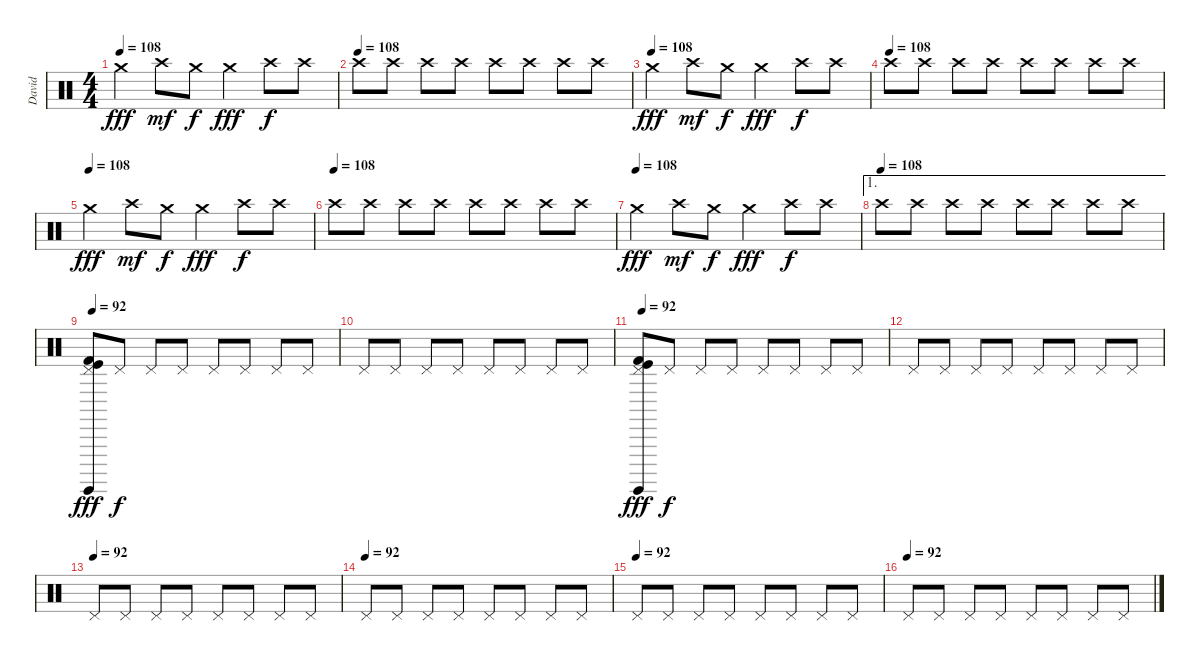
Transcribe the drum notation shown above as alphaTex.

\track ("David" "David") {instrument percussion}
\staff {score}
\articulation defaults
\ts (4 4)
\tempo 108
\clef neutral
\ks c "Crash medium (hit)".4{dy fff} "Crash high (hit)".8{dy mf} "Crash medium (hit)".8{dy f} "Crash medium (hit)".4{dy fff} "Crash high (hit)".8{dy f} "Crash high (hit)".8
|
\tempo (108)
"Crash high (hit)".8 "Crash high (hit)".8 "Crash high (hit)".8 "Crash high (hit)".8 "Crash high (hit)".8 "Crash high (hit)".8 "Crash high (hit)".8 "Crash high (hit)".8 |
\tempo (108)
"Crash medium (hit)".4{dy fff} "Crash high (hit)".8{dy mf} "Crash medium (hit)".8{dy f} "Crash medium (hit)".4{dy fff} "Crash high (hit)".8{dy f} "Crash high (hit)".8 |
\tempo (108)
"Crash high (hit)".8 "Crash high (hit)".8 "Crash high (hit)".8 "Crash high (hit)".8 "Crash high (hit)".8 "Crash high (hit)".8 "Crash high (hit)".8 "Crash high (hit)".8 |
\tempo (108)
"Crash medium (hit)".4{dy fff} "Crash high (hit)".8{dy mf} "Crash medium (hit)".8{dy f} "Crash medium (hit)".4{dy fff} "Crash high (hit)".8{dy f} "Crash high (hit)".8 |
\tempo (108)
"Crash high (hit)".8 "Crash high (hit)".8 "Crash high (hit)".8 "Crash high (hit)".8 "Crash high (hit)".8 "Crash high (hit)".8 "Crash high (hit)".8 "Crash high (hit)".8 |
\tempo (108)
"Crash medium (hit)".4{dy fff} "Crash high (hit)".8{dy mf} "Crash medium (hit)".8{dy f} "Crash medium (hit)".4{dy fff} "Crash high (hit)".8{dy f} "Crash high (hit)".8 |
\ae 1
\tempo (108)
"Crash high (hit)".8 "Crash high (hit)".8 "Crash high (hit)".8 "Crash high (hit)".8 "Crash high (hit)".8 "Crash high (hit)".8 "Crash high (hit)".8 "Crash high (hit)".8 |
\tempo 92
("Pedal Hi-Hat (hit)" "Surdo (hit)" "Kick (hit)" "Kick (hit) 2").8{dy fff} "Pedal Hi-Hat (hit)".8{dy f} "Pedal Hi-Hat (hit)".8 "Pedal Hi-Hat (hit)".8 "Pedal Hi-Hat (hit)".8 "Pedal Hi-Hat (hit)".8 "Pedal Hi-Hat (hit)".8 "Pedal Hi-Hat (hit)".8 |
"Pedal Hi-Hat (hit)".8 "Pedal Hi-Hat (hit)".8 "Pedal Hi-Hat (hit)".8 "Pedal Hi-Hat (hit)".8 "Pedal Hi-Hat (hit)".8 "Pedal Hi-Hat (hit)".8 "Pedal Hi-Hat (hit)".8 "Pedal Hi-Hat (hit)".8 |
\tempo 92
("Pedal Hi-Hat (hit)" "Surdo (hit)" "Kick (hit)" "Kick (hit) 2").8{dy fff} "Pedal Hi-Hat (hit)".8{dy f} "Pedal Hi-Hat (hit)".8 "Pedal Hi-Hat (hit)".8 "Pedal Hi-Hat (hit)".8 "Pedal Hi-Hat (hit)".8 "Pedal Hi-Hat (hit)".8 "Pedal Hi-Hat (hit)".8 |
"Pedal Hi-Hat (hit)".8 "Pedal Hi-Hat (hit)".8 "Pedal Hi-Hat (hit)".8 "Pedal Hi-Hat (hit)".8 "Pedal Hi-Hat (hit)".8 "Pedal Hi-Hat (hit)".8 "Pedal Hi-Hat (hit)".8 "Pedal Hi-Hat (hit)".8 |
\tempo (92)
"Pedal Hi-Hat (hit)".8 "Pedal Hi-Hat (hit)".8 "Pedal Hi-Hat (hit)".8 "Pedal Hi-Hat (hit)".8 "Pedal Hi-Hat (hit)".8 "Pedal Hi-Hat (hit)".8 "Pedal Hi-Hat (hit)".8 "Pedal Hi-Hat (hit)".8 |
\tempo (92)
"Pedal Hi-Hat (hit)".8 "Pedal Hi-Hat (hit)".8 "Pedal Hi-Hat (hit)".8 "Pedal Hi-Hat (hit)".8 "Pedal Hi-Hat (hit)".8 "Pedal Hi-Hat (hit)".8 "Pedal Hi-Hat (hit)".8 "Pedal Hi-Hat (hit)".8 |
\tempo (92)
"Pedal Hi-Hat (hit)".8 "Pedal Hi-Hat (hit)".8 "Pedal Hi-Hat (hit)".8 "Pedal Hi-Hat (hit)".8 "Pedal Hi-Hat (hit)".8 "Pedal Hi-Hat (hit)".8 "Pedal Hi-Hat (hit)".8 "Pedal Hi-Hat (hit)".8 |
\tempo (92)
"Pedal Hi-Hat (hit)".8 "Pedal Hi-Hat (hit)".8 "Pedal Hi-Hat (hit)".8 "Pedal Hi-Hat (hit)".8 "Pedal Hi-Hat (hit)".8 "Pedal Hi-Hat (hit)".8 "Pedal Hi-Hat (hit)".8 "Pedal Hi-Hat (hit)".8
